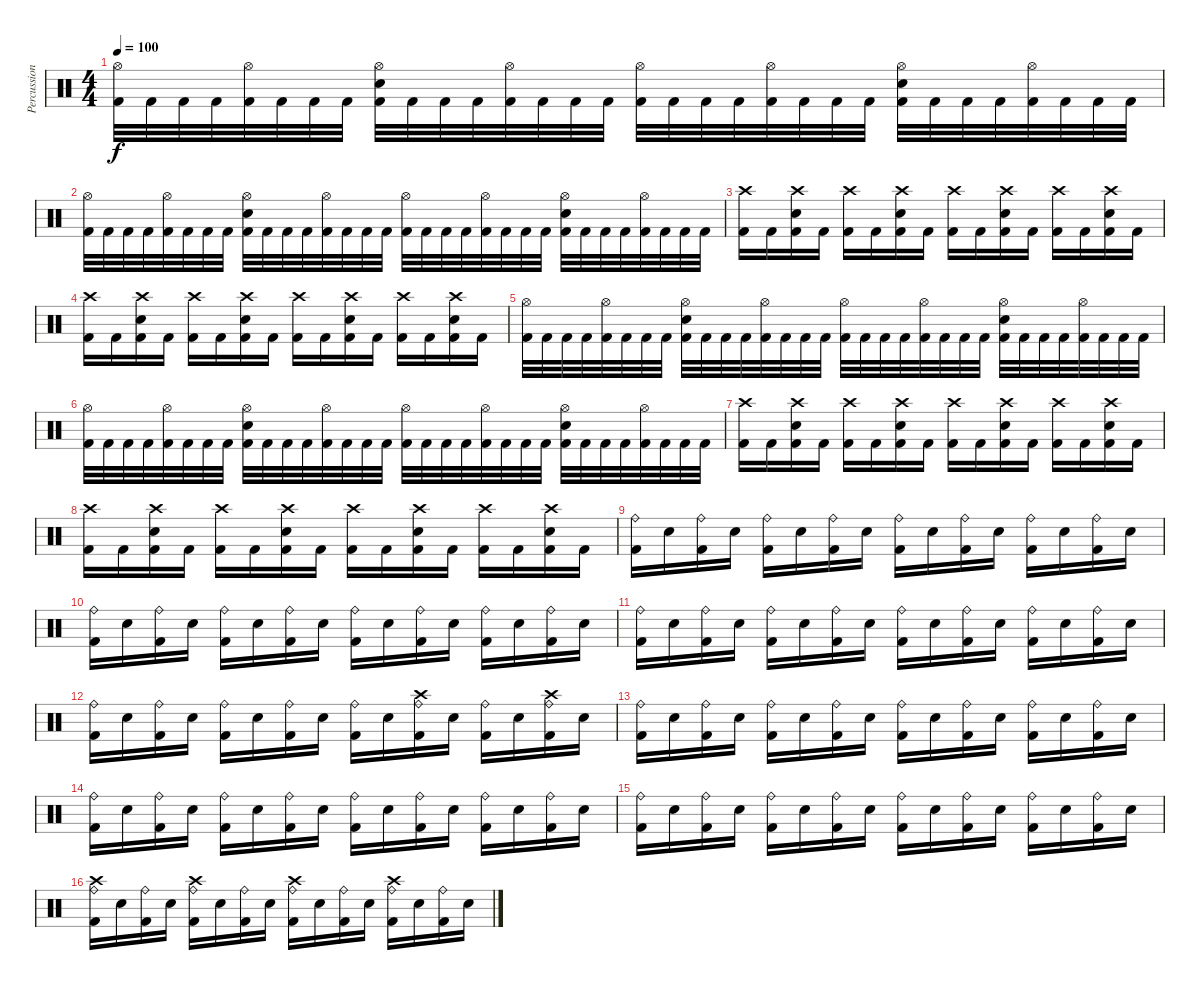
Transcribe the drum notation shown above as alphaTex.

\track ("Percussion" "Percussion") {instrument percussion}
\staff {score}
\articulation defaults
\ts (4 4)
\tempo 100
\clef neutral
\ks c
("Hi-Hat (open)" "Kick (hit) 2").32{dy f} "Kick (hit) 2".32 "Kick (hit) 2".32 "Kick (hit) 2".32 ("Hi-Hat (open)" "Kick (hit) 2").32 "Kick (hit) 2".32 "Kick (hit) 2".32 "Kick (hit) 2".32 ("Hi-Hat (open)" "Electric Snare (hit)" "Kick (hit) 2").32 "Kick (hit) 2".32 "Kick (hit) 2".32 "Kick (hit) 2".32 ("Hi-Hat (open)" "Kick (hit) 2").32 "Kick (hit) 2".32 "Kick (hit) 2".32 "Kick (hit) 2".32 ("Hi-Hat (open)" "Kick (hit) 2").32 "Kick (hit) 2".32 "Kick (hit) 2".32 "Kick (hit) 2".32 ("Hi-Hat (open)" "Kick (hit) 2").32 "Kick (hit) 2".32 "Kick (hit) 2".32 "Kick (hit) 2".32 ("Hi-Hat (open)" "Electric Snare (hit)" "Kick (hit) 2").32 "Kick (hit) 2".32 "Kick (hit) 2".32 "Kick (hit) 2".32 ("Hi-Hat (open)" "Kick (hit) 2").32 "Kick (hit) 2".32 "Kick (hit) 2".32 "Kick (hit) 2".32 |
("Hi-Hat (open)" "Kick (hit) 2").32 "Kick (hit) 2".32 "Kick (hit) 2".32 "Kick (hit) 2".32 ("Hi-Hat (open)" "Kick (hit) 2").32 "Kick (hit) 2".32 "Kick (hit) 2".32 "Kick (hit) 2".32 ("Hi-Hat (open)" "Electric Snare (hit)" "Kick (hit) 2").32 "Kick (hit) 2".32 "Kick (hit) 2".32 "Kick (hit) 2".32 ("Hi-Hat (open)" "Kick (hit) 2").32 "Kick (hit) 2".32 "Kick (hit) 2".32 "Kick (hit) 2".32 ("Hi-Hat (open)" "Kick (hit) 2").32 "Kick (hit) 2".32 "Kick (hit) 2".32 "Kick (hit) 2".32 ("Hi-Hat (open)" "Kick (hit) 2").32 "Kick (hit) 2".32 "Kick (hit) 2".32 "Kick (hit) 2".32 ("Hi-Hat (open)" "Electric Snare (hit)" "Kick (hit) 2").32 "Kick (hit) 2".32 "Kick (hit) 2".32 "Kick (hit) 2".32 ("Hi-Hat (open)" "Kick (hit) 2").32 "Kick (hit) 2".32 "Kick (hit) 2".32 "Kick (hit) 2".32 |
("Crash high (hit)" "Kick (hit) 2").16 "Kick (hit) 2".16 ("Crash high (hit)" "Electric Snare (hit)" "Kick (hit) 2").16 "Kick (hit) 2".16 ("Crash high (hit)" "Kick (hit) 2").16 "Kick (hit) 2".16 ("Crash high (hit)" "Electric Snare (hit)" "Kick (hit) 2").16 "Kick (hit) 2".16 ("Crash high (hit)" "Kick (hit) 2").16 "Kick (hit) 2".16 ("Crash high (hit)" "Electric Snare (hit)" "Kick (hit) 2").16 "Kick (hit) 2".16 ("Crash high (hit)" "Kick (hit) 2").16 "Kick (hit) 2".16 ("Crash high (hit)" "Electric Snare (hit)" "Kick (hit) 2").16 "Kick (hit) 2".16 |
("Crash high (hit)" "Kick (hit) 2").16 "Kick (hit) 2".16 ("Crash high (hit)" "Electric Snare (hit)" "Kick (hit) 2").16 "Kick (hit) 2".16 ("Crash high (hit)" "Kick (hit) 2").16 "Kick (hit) 2".16 ("Crash high (hit)" "Electric Snare (hit)" "Kick (hit) 2").16 "Kick (hit) 2".16 ("Crash high (hit)" "Kick (hit) 2").16 "Kick (hit) 2".16 ("Crash high (hit)" "Electric Snare (hit)" "Kick (hit) 2").16 "Kick (hit) 2".16 ("Crash high (hit)" "Kick (hit) 2").16 "Kick (hit) 2".16 ("Crash high (hit)" "Electric Snare (hit)" "Kick (hit) 2").16 "Kick (hit) 2".16 |
("Hi-Hat (open)" "Kick (hit) 2").32 "Kick (hit) 2".32 "Kick (hit) 2".32 "Kick (hit) 2".32 ("Hi-Hat (open)" "Kick (hit) 2").32 "Kick (hit) 2".32 "Kick (hit) 2".32 "Kick (hit) 2".32 ("Hi-Hat (open)" "Electric Snare (hit)" "Kick (hit) 2").32 "Kick (hit) 2".32 "Kick (hit) 2".32 "Kick (hit) 2".32 ("Hi-Hat (open)" "Kick (hit) 2").32 "Kick (hit) 2".32 "Kick (hit) 2".32 "Kick (hit) 2".32 ("Hi-Hat (open)" "Kick (hit) 2").32 "Kick (hit) 2".32 "Kick (hit) 2".32 "Kick (hit) 2".32 ("Hi-Hat (open)" "Kick (hit) 2").32 "Kick (hit) 2".32 "Kick (hit) 2".32 "Kick (hit) 2".32 ("Hi-Hat (open)" "Electric Snare (hit)" "Kick (hit) 2").32 "Kick (hit) 2".32 "Kick (hit) 2".32 "Kick (hit) 2".32 ("Hi-Hat (open)" "Kick (hit) 2").32 "Kick (hit) 2".32 "Kick (hit) 2".32 "Kick (hit) 2".32 |
("Hi-Hat (open)" "Kick (hit) 2").32 "Kick (hit) 2".32 "Kick (hit) 2".32 "Kick (hit) 2".32 ("Hi-Hat (open)" "Kick (hit) 2").32 "Kick (hit) 2".32 "Kick (hit) 2".32 "Kick (hit) 2".32 ("Hi-Hat (open)" "Electric Snare (hit)" "Kick (hit) 2").32 "Kick (hit) 2".32 "Kick (hit) 2".32 "Kick (hit) 2".32 ("Hi-Hat (open)" "Kick (hit) 2").32 "Kick (hit) 2".32 "Kick (hit) 2".32 "Kick (hit) 2".32 ("Hi-Hat (open)" "Kick (hit) 2").32 "Kick (hit) 2".32 "Kick (hit) 2".32 "Kick (hit) 2".32 ("Hi-Hat (open)" "Kick (hit) 2").32 "Kick (hit) 2".32 "Kick (hit) 2".32 "Kick (hit) 2".32 ("Hi-Hat (open)" "Electric Snare (hit)" "Kick (hit) 2").32 "Kick (hit) 2".32 "Kick (hit) 2".32 "Kick (hit) 2".32 ("Hi-Hat (open)" "Kick (hit) 2").32 "Kick (hit) 2".32 "Kick (hit) 2".32 "Kick (hit) 2".32 |
("Crash high (hit)" "Kick (hit) 2").16 "Kick (hit) 2".16 ("Crash high (hit)" "Electric Snare (hit)" "Kick (hit) 2").16 "Kick (hit) 2".16 ("Crash high (hit)" "Kick (hit) 2").16 "Kick (hit) 2".16 ("Crash high (hit)" "Electric Snare (hit)" "Kick (hit) 2").16 "Kick (hit) 2".16 ("Crash high (hit)" "Kick (hit) 2").16 "Kick (hit) 2".16 ("Crash high (hit)" "Electric Snare (hit)" "Kick (hit) 2").16 "Kick (hit) 2".16 ("Crash high (hit)" "Kick (hit) 2").16 "Kick (hit) 2".16 ("Crash high (hit)" "Electric Snare (hit)" "Kick (hit) 2").16 "Kick (hit) 2".16 |
("Crash high (hit)" "Kick (hit) 2").16 "Kick (hit) 2".16 ("Crash high (hit)" "Electric Snare (hit)" "Kick (hit) 2").16 "Kick (hit) 2".16 ("Crash high (hit)" "Kick (hit) 2").16 "Kick (hit) 2".16 ("Crash high (hit)" "Electric Snare (hit)" "Kick (hit) 2").16 "Kick (hit) 2".16 ("Crash high (hit)" "Kick (hit) 2").16 "Kick (hit) 2".16 ("Crash high (hit)" "Electric Snare (hit)" "Kick (hit) 2").16 "Kick (hit) 2".16 ("Crash high (hit)" "Kick (hit) 2").16 "Kick (hit) 2".16 ("Crash high (hit)" "Electric Snare (hit)" "Kick (hit) 2").16 "Kick (hit) 2".16 |
("Ride (bell)" "Kick (hit) 2").16 "Electric Snare (hit)".16 ("Ride (bell)" "Kick (hit) 2").16 "Electric Snare (hit)".16 ("Ride (bell)" "Kick (hit) 2").16 "Electric Snare (hit)".16 ("Ride (bell)" "Kick (hit) 2").16 "Electric Snare (hit)".16 ("Ride (bell)" "Kick (hit) 2").16 "Electric Snare (hit)".16 ("Ride (bell)" "Kick (hit) 2").16 "Electric Snare (hit)".16 ("Ride (bell)" "Kick (hit) 2").16 "Electric Snare (hit)".16 ("Ride (bell)" "Kick (hit) 2").16 "Electric Snare (hit)".16 |
("Ride (bell)" "Kick (hit) 2").16 "Electric Snare (hit)".16 ("Ride (bell)" "Kick (hit) 2").16 "Electric Snare (hit)".16 ("Ride (bell)" "Kick (hit) 2").16 "Electric Snare (hit)".16 ("Ride (bell)" "Kick (hit) 2").16 "Electric Snare (hit)".16 ("Ride (bell)" "Kick (hit) 2").16 "Electric Snare (hit)".16 ("Ride (bell)" "Kick (hit) 2").16 "Electric Snare (hit)".16 ("Ride (bell)" "Kick (hit) 2").16 "Electric Snare (hit)".16 ("Ride (bell)" "Kick (hit) 2").16 "Electric Snare (hit)".16 |
("Ride (bell)" "Kick (hit) 2").16 "Electric Snare (hit)".16 ("Ride (bell)" "Kick (hit) 2").16 "Electric Snare (hit)".16 ("Ride (bell)" "Kick (hit) 2").16 "Electric Snare (hit)".16 ("Ride (bell)" "Kick (hit) 2").16 "Electric Snare (hit)".16 ("Ride (bell)" "Kick (hit) 2").16 "Electric Snare (hit)".16 ("Ride (bell)" "Kick (hit) 2").16 "Electric Snare (hit)".16 ("Ride (bell)" "Kick (hit) 2").16 "Electric Snare (hit)".16 ("Ride (bell)" "Kick (hit) 2").16 "Electric Snare (hit)".16 |
("Ride (bell)" "Kick (hit) 2").16 "Electric Snare (hit)".16 ("Ride (bell)" "Kick (hit) 2").16 "Electric Snare (hit)".16 ("Ride (bell)" "Kick (hit) 2").16 "Electric Snare (hit)".16 ("Ride (bell)" "Kick (hit) 2").16 "Electric Snare (hit)".16 ("Ride (bell)" "Kick (hit) 2").16 "Electric Snare (hit)".16 ("Ride (bell)" "Crash high (hit)" "Kick (hit) 2").16 "Electric Snare (hit)".16 ("Ride (bell)" "Kick (hit) 2").16 "Electric Snare (hit)".16 ("Ride (bell)" "Crash high (hit)" "Kick (hit) 2").16 "Electric Snare (hit)".16 |
("Ride (bell)" "Kick (hit) 2").16 "Electric Snare (hit)".16 ("Ride (bell)" "Kick (hit) 2").16 "Electric Snare (hit)".16 ("Ride (bell)" "Kick (hit) 2").16 "Electric Snare (hit)".16 ("Ride (bell)" "Kick (hit) 2").16 "Electric Snare (hit)".16 ("Ride (bell)" "Kick (hit) 2").16 "Electric Snare (hit)".16 ("Ride (bell)" "Kick (hit) 2").16 "Electric Snare (hit)".16 ("Ride (bell)" "Kick (hit) 2").16 "Electric Snare (hit)".16 ("Ride (bell)" "Kick (hit) 2").16 "Electric Snare (hit)".16 |
("Ride (bell)" "Kick (hit) 2").16 "Electric Snare (hit)".16 ("Ride (bell)" "Kick (hit) 2").16 "Electric Snare (hit)".16 ("Ride (bell)" "Kick (hit) 2").16 "Electric Snare (hit)".16 ("Ride (bell)" "Kick (hit) 2").16 "Electric Snare (hit)".16 ("Ride (bell)" "Kick (hit) 2").16 "Electric Snare (hit)".16 ("Ride (bell)" "Kick (hit) 2").16 "Electric Snare (hit)".16 ("Ride (bell)" "Kick (hit) 2").16 "Electric Snare (hit)".16 ("Ride (bell)" "Kick (hit) 2").16 "Electric Snare (hit)".16 |
("Ride (bell)" "Kick (hit) 2").16 "Electric Snare (hit)".16 ("Ride (bell)" "Kick (hit) 2").16 "Electric Snare (hit)".16 ("Ride (bell)" "Kick (hit) 2").16 "Electric Snare (hit)".16 ("Ride (bell)" "Kick (hit) 2").16 "Electric Snare (hit)".16 ("Ride (bell)" "Kick (hit) 2").16 "Electric Snare (hit)".16 ("Ride (bell)" "Kick (hit) 2").16 "Electric Snare (hit)".16 ("Ride (bell)" "Kick (hit) 2").16 "Electric Snare (hit)".16 ("Ride (bell)" "Kick (hit) 2").16 "Electric Snare (hit)".16 |
("Ride (bell)" "Crash high (hit)" "Kick (hit) 2").16 "Electric Snare (hit)".16 ("Ride (bell)" "Kick (hit) 2").16 "Electric Snare (hit)".16 ("Ride (bell)" "Crash high (hit)" "Kick (hit) 2").16 "Electric Snare (hit)".16 ("Ride (bell)" "Kick (hit) 2").16 "Electric Snare (hit)".16 ("Ride (bell)" "Crash high (hit)" "Kick (hit) 2").16 "Electric Snare (hit)".16 ("Ride (bell)" "Kick (hit) 2").16 "Electric Snare (hit)".16 ("Ride (bell)" "Crash high (hit)" "Kick (hit) 2").16 "Electric Snare (hit)".16 ("Ride (bell)" "Kick (hit) 2").16 "Electric Snare (hit)".16
